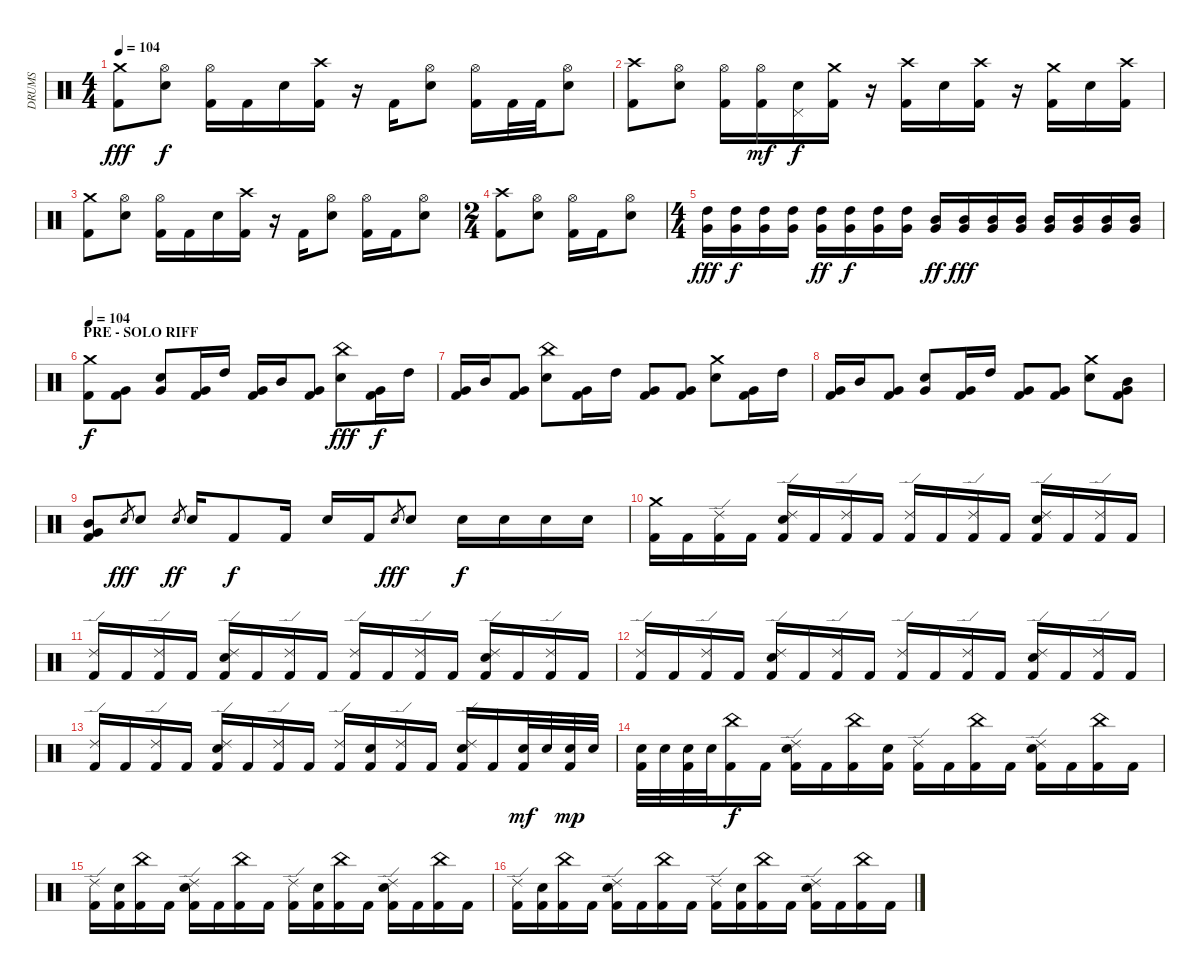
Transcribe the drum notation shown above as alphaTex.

\track ("DRUMS" "DRUMS") {instrument percussion}
\staff {score}
\articulation defaults
\ts (4 4)
\tempo 104
\clef neutral
\ks c
("Crash medium (hit)" "Kick (hit) 2").8{dy fff} ("Hi-Hat (open)" "Electric Snare (hit)").8{dy f} ("Hi-Hat (open)" "Kick (hit) 2").16 "Kick (hit) 2".16 "Electric Snare (hit)".16 ("Crash high (hit)" "Kick (hit) 2").16 r.16 "Kick (hit) 2".16 ("Hi-Hat (open)" "Electric Snare (hit)").8 ("Hi-Hat (open)" "Kick (hit) 2").16 "Kick (hit) 2".32 "Kick (hit) 2".32 ("Hi-Hat (open)" "Electric Snare (hit)").8 |
("Crash high (hit)" "Kick (hit) 2").8 ("Hi-Hat (open)" "Electric Snare (hit)").8 ("Hi-Hat (open)" "Kick (hit) 2").16 ("Hi-Hat (open)" "Kick (hit) 2").16{dy mf} ("Electric Snare (hit)" "Pedal Hi-Hat (hit)").16{dy f} ("Crash medium (hit)" "Kick (hit) 2").16 r.16 ("Crash high (hit)" "Kick (hit) 2").16 "Electric Snare (hit)".16 ("Crash high (hit)" "Kick (hit) 2").16 r.16 ("Crash medium (hit)" "Kick (hit) 2").16 "Electric Snare (hit)".16 ("Crash high (hit)" "Kick (hit) 2").16 |
("Crash medium (hit)" "Kick (hit) 2").8 ("Hi-Hat (open)" "Electric Snare (hit)").8 ("Hi-Hat (open)" "Kick (hit) 2").16 "Kick (hit) 2".16 "Electric Snare (hit)".16 ("Crash high (hit)" "Kick (hit) 2").16 r.16 "Kick (hit) 2".16 ("Hi-Hat (open)" "Electric Snare (hit)").8 ("Hi-Hat (open)" "Kick (hit) 2").16 "Kick (hit) 2".16 ("Hi-Hat (open)" "Electric Snare (hit)").8 |
\ts (2 4)
("Crash high (hit)" "Kick (hit) 2").8 ("Hi-Hat (open)" "Electric Snare (hit)").8 ("Hi-Hat (open)" "Kick (hit) 2").16 "Kick (hit) 2".16 ("Hi-Hat (open)" "Electric Snare (hit)").8 |
\ts (4 4)
("High Tom (hit)" "Very Low Tom (hit)").16{dy fff} ("High Tom (hit)" "Very Low Tom (hit)").16{dy f} ("High Tom (hit)" "Very Low Tom (hit)").16 ("High Tom (hit)" "Very Low Tom (hit)").16 ("High Tom (hit)" "Very Low Tom (hit)").16{dy ff} ("High Tom (hit)" "Very Low Tom (hit)").16{dy f} ("High Tom (hit)" "Very Low Tom (hit)").16 ("High Tom (hit)" "Very Low Tom (hit)").16 ("Mid Tom (hit)" "Very Low Tom (hit)").16{dy ff} ("Mid Tom (hit)" "Very Low Tom (hit)").16{dy fff} ("Mid Tom (hit)" "Very Low Tom (hit)").16 ("Mid Tom (hit)" "Very Low Tom (hit)").16 ("Mid Tom (hit)" "Very Low Tom (hit)").16 ("Mid Tom (hit)" "Very Low Tom (hit)").16 ("Mid Tom (hit)" "Very Low Tom (hit)").16 ("Mid Tom (hit)" "Very Low Tom (hit)").16 |
\section ("" "PRE - SOLO RIFF")
\tempo 104
("Crash medium (hit)" "Kick (hit) 2").8{dy f} ("Very Low Tom (hit)" "Kick (hit) 2").8 ("Electric Snare (hit)" "Very Low Tom (hit)").8 ("Very Low Tom (hit)" "Kick (hit) 2").16 "High Tom (hit)".16 ("Very Low Tom (hit)" "Kick (hit) 2").16 "Mid Tom (hit)".16 ("Very Low Tom (hit)" "Kick (hit) 2").8 ("China (hit)" "Electric Snare (hit)").8{dy fff} ("Very Low Tom (hit)" "Kick (hit) 2").16{dy f} "High Tom (hit)".16 |
("Very Low Tom (hit)" "Kick (hit) 2").16 "Mid Tom (hit)".16 ("Very Low Tom (hit)" "Kick (hit) 2").8 ("China (hit)" "Electric Snare (hit)").8 ("Very Low Tom (hit)" "Kick (hit) 2").16 "High Tom (hit)".16 ("Very Low Tom (hit)" "Kick (hit) 2").8 ("Very Low Tom (hit)" "Kick (hit) 2").8 ("Crash medium (hit)" "Electric Snare (hit)").8 ("Very Low Tom (hit)" "Kick (hit) 2").16 "High Tom (hit)".16 |
("Very Low Tom (hit)" "Kick (hit) 2").16 "Mid Tom (hit)".16 ("Very Low Tom (hit)" "Kick (hit) 2").8 ("Electric Snare (hit)" "Very Low Tom (hit)").8 ("Very Low Tom (hit)" "Kick (hit) 2").16 "High Tom (hit)".16 ("Very Low Tom (hit)" "Kick (hit) 2").8 ("Very Low Tom (hit)" "Kick (hit) 2").8 ("Crash medium (hit)" "Electric Snare (hit)").8 ("Mid Tom (hit)" "Very Low Tom (hit)" "Kick (hit) 2").8 |
("Mid Tom (hit)" "Very Low Tom (hit)" "Kick (hit) 2").8 "Electric Snare (hit)"{h}.8{gr dy fff} "Electric Snare (hit)".8 "Electric Snare (hit)"{sl}.8{gr dy ff} "Electric Snare (hit)".16 "Kick (hit) 2".8{dy f} "Kick (hit) 2".16 "Electric Snare (hit)".16 "Kick (hit) 2".16 "Electric Snare (hit)"{h}.8{gr dy fff} "Electric Snare (hit)".8 "Electric Snare (hit)".16{dy f} "Electric Snare (hit)".16 "Electric Snare (hit)".16 "Electric Snare (hit)".16 |
("Crash medium (hit)" "Kick (hit) 2").16 "Kick (hit) 2".16 ("Ride (edge) 2" "Kick (hit) 2").16 "Kick (hit) 2".16 ("Ride (edge) 2" "Electric Snare (hit)" "Kick (hit) 2").16 "Kick (hit) 2".16 ("Ride (edge) 2" "Kick (hit) 2").16 "Kick (hit) 2".16 ("Ride (edge) 2" "Kick (hit) 2").16 "Kick (hit) 2".16 ("Ride (edge) 2" "Kick (hit) 2").16 "Kick (hit) 2".16 ("Ride (edge) 2" "Electric Snare (hit)" "Kick (hit) 2").16 "Kick (hit) 2".16 ("Ride (edge) 2" "Kick (hit) 2").16 "Kick (hit) 2".16 |
("Ride (edge) 2" "Kick (hit) 2").16 "Kick (hit) 2".16 ("Ride (edge) 2" "Kick (hit) 2").16 "Kick (hit) 2".16 ("Ride (edge) 2" "Electric Snare (hit)" "Kick (hit) 2").16 "Kick (hit) 2".16 ("Ride (edge) 2" "Kick (hit) 2").16 "Kick (hit) 2".16 ("Ride (edge) 2" "Kick (hit) 2").16 "Kick (hit) 2".16 ("Ride (edge) 2" "Kick (hit) 2").16 "Kick (hit) 2".16 ("Ride (edge) 2" "Electric Snare (hit)" "Kick (hit) 2").16 "Kick (hit) 2".16 ("Ride (edge) 2" "Kick (hit) 2").16 "Kick (hit) 2".16 |
("Ride (edge) 2" "Kick (hit) 2").16 "Kick (hit) 2".16 ("Ride (edge) 2" "Kick (hit) 2").16 "Kick (hit) 2".16 ("Ride (edge) 2" "Electric Snare (hit)" "Kick (hit) 2").16 "Kick (hit) 2".16 ("Ride (edge) 2" "Kick (hit) 2").16 "Kick (hit) 2".16 ("Ride (edge) 2" "Kick (hit) 2").16 "Kick (hit) 2".16 ("Ride (edge) 2" "Kick (hit) 2").16 "Kick (hit) 2".16 ("Ride (edge) 2" "Electric Snare (hit)" "Kick (hit) 2").16 "Kick (hit) 2".16 ("Ride (edge) 2" "Kick (hit) 2").16 "Kick (hit) 2".16 |
("Ride (edge) 2" "Kick (hit) 2").16 "Kick (hit) 2".16 ("Ride (edge) 2" "Kick (hit) 2").16 "Kick (hit) 2".16 ("Ride (edge) 2" "Electric Snare (hit)" "Kick (hit) 2").16 "Kick (hit) 2".16 ("Ride (edge) 2" "Kick (hit) 2").16 "Kick (hit) 2".16 ("Ride (edge) 2" "Kick (hit) 2").16 ("Electric Snare (hit)" "Kick (hit) 2").16 ("Ride (edge) 2" "Kick (hit) 2").16 "Kick (hit) 2".16 ("Ride (edge) 2" "Electric Snare (hit)" "Kick (hit) 2").16 "Kick (hit) 2".16 ("Electric Snare (hit)" "Kick (hit) 2").32{dy mf} "Electric Snare (hit)".32 ("Electric Snare (hit)" "Kick (hit) 2").32{dy mp} "Electric Snare (hit)".32 |
("Electric Snare (hit)" "Kick (hit) 2").32 "Electric Snare (hit)".32 ("Electric Snare (hit)" "Kick (hit) 2").32 "Electric Snare (hit)".32 ("China (hit)" "Kick (hit) 2").16{dy f} "Kick (hit) 2".16 ("Ride (edge) 2" "Electric Snare (hit)" "Kick (hit) 2").16 "Kick (hit) 2".16 ("China (hit)" "Kick (hit) 2").16 ("Electric Snare (hit)" "Kick (hit) 2").16 ("Ride (edge) 2" "Kick (hit) 2").16 "Kick (hit) 2".16 ("China (hit)" "Kick (hit) 2").16 "Kick (hit) 2".16 ("Ride (edge) 2" "Electric Snare (hit)" "Kick (hit) 2").16 "Kick (hit) 2".16 ("China (hit)" "Kick (hit) 2").16 "Kick (hit) 2".16 |
("Ride (edge) 2" "Kick (hit) 2").16 ("Electric Snare (hit)" "Kick (hit) 2").16 ("China (hit)" "Kick (hit) 2").16 "Kick (hit) 2".16 ("Ride (edge) 2" "Electric Snare (hit)" "Kick (hit) 2").16 "Kick (hit) 2".16 ("China (hit)" "Kick (hit) 2").16 "Kick (hit) 2".16 ("Ride (edge) 2" "Kick (hit) 2").16 ("Electric Snare (hit)" "Kick (hit) 2").16 ("China (hit)" "Kick (hit) 2").16 "Kick (hit) 2".16 ("Ride (edge) 2" "Electric Snare (hit)" "Kick (hit) 2").16 "Kick (hit) 2".16 ("China (hit)" "Kick (hit) 2").16 "Kick (hit) 2".16 |
("Ride (edge) 2" "Kick (hit) 2").16 ("Electric Snare (hit)" "Kick (hit) 2").16 ("China (hit)" "Kick (hit) 2").16 "Kick (hit) 2".16 ("Ride (edge) 2" "Electric Snare (hit)" "Kick (hit) 2").16 "Kick (hit) 2".16 ("China (hit)" "Kick (hit) 2").16 "Kick (hit) 2".16 ("Ride (edge) 2" "Kick (hit) 2").16 ("Electric Snare (hit)" "Kick (hit) 2").16 ("China (hit)" "Kick (hit) 2").16 "Kick (hit) 2".16 ("Ride (edge) 2" "Electric Snare (hit)" "Kick (hit) 2").16 "Kick (hit) 2".16 ("China (hit)" "Kick (hit) 2").16 "Kick (hit) 2".16
